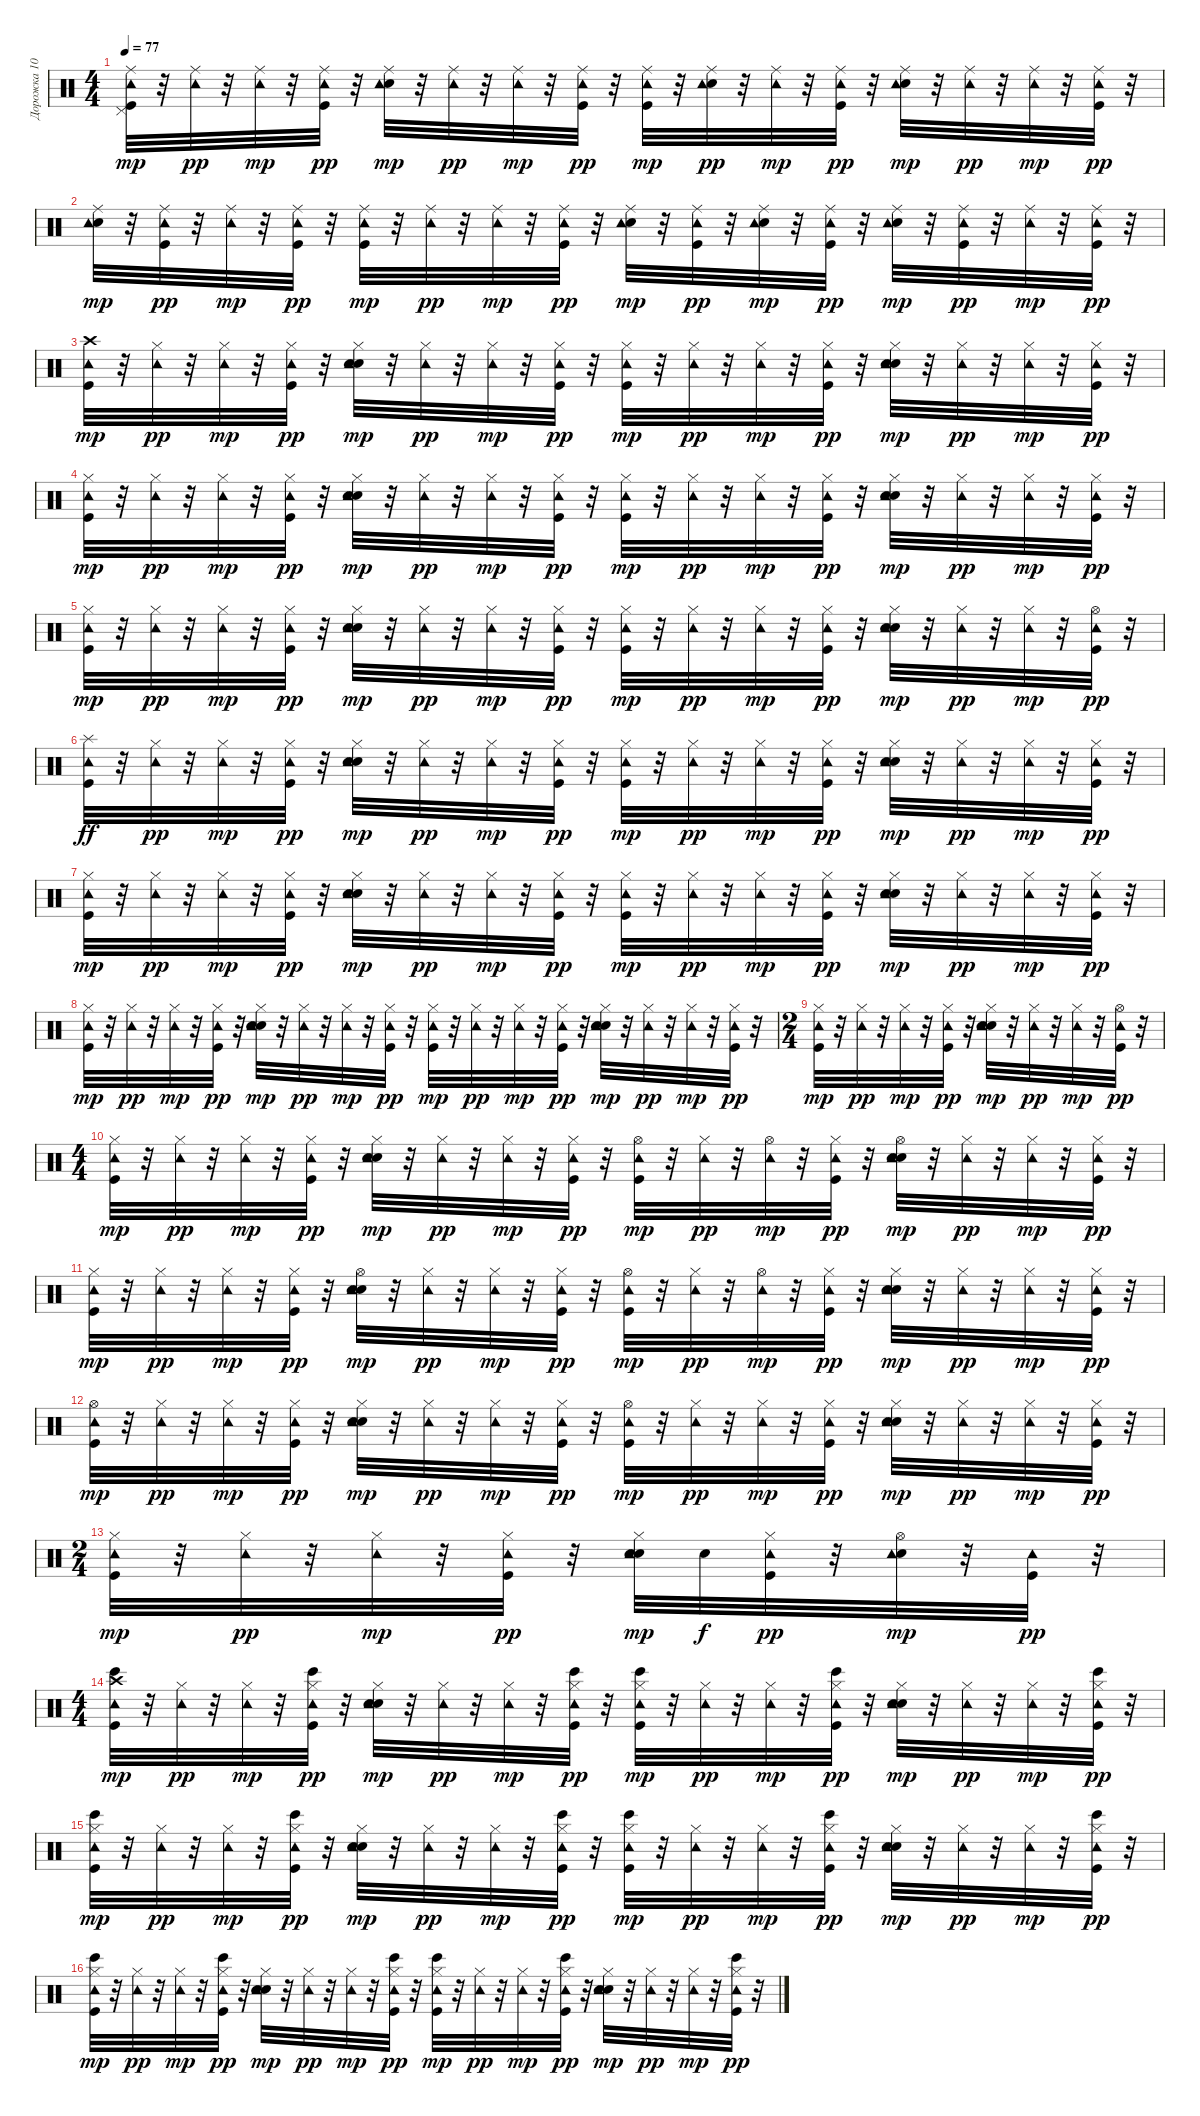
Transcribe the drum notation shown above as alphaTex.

\track ("Дорожка 10" "Дорожка 10") {instrument percussion}
\staff {score}
\articulation defaults
\ts (4 4)
\tempo 77
\clef neutral
\ks c
("Kick (hit)" "Pedal Hi-Hat (hit)" "Ride (middle)" "Tambourine (hit)").32{dy mp} r.32 ("Ride (middle)" "Tambourine (hit)").32{dy pp} r.32 ("Ride (middle)" "Tambourine (hit)").32{dy mp} r.32 ("Kick (hit)" "Ride (middle)" "Tambourine (hit)").32{dy pp} r.32 ("Snare (hit) 2" "Ride (middle)" "Tambourine (hit)").32{dy mp} r.32 ("Ride (middle)" "Tambourine (hit)").32{dy pp} r.32 ("Ride (middle)" "Tambourine (hit)").32{dy mp} r.32 ("Kick (hit)" "Ride (middle)" "Tambourine (hit)").32{dy pp} r.32 ("Kick (hit)" "Ride (middle)" "Tambourine (hit)").32{dy mp} r.32 ("Snare (hit) 2" "Ride (middle)" "Tambourine (hit)").32{dy pp} r.32 ("Ride (middle)" "Tambourine (hit)").32{dy mp} r.32 ("Kick (hit)" "Ride (middle)" "Tambourine (hit)").32{dy pp} r.32 ("Snare (hit) 2" "Ride (middle)" "Tambourine (hit)").32{dy mp} r.32 ("Ride (middle)" "Tambourine (hit)").32{dy pp} r.32 ("Ride (middle)" "Tambourine (hit)").32{dy mp} r.32 ("Kick (hit)" "Ride (middle)" "Tambourine (hit)").32{dy pp} r.32 |
("Snare (hit) 2" "Ride (middle)" "Tambourine (hit)").32{dy mp} r.32 ("Kick (hit)" "Ride (middle)" "Tambourine (hit)").32{dy pp} r.32 ("Ride (middle)" "Tambourine (hit)").32{dy mp} r.32 ("Kick (hit)" "Ride (middle)" "Tambourine (hit)").32{dy pp} r.32 ("Kick (hit)" "Ride (middle)" "Tambourine (hit)").32{dy mp} r.32 ("Ride (middle)" "Tambourine (hit)").32{dy pp} r.32 ("Ride (middle)" "Tambourine (hit)").32{dy mp} r.32 ("Kick (hit)" "Ride (middle)" "Tambourine (hit)").32{dy pp} r.32 ("Snare (hit) 2" "Ride (middle)" "Tambourine (hit)").32{dy mp} r.32 ("Kick (hit)" "Ride (middle)" "Tambourine (hit)").32{dy pp} r.32 ("Snare (hit) 2" "Ride (middle)" "Tambourine (hit)").32{dy mp} r.32 ("Kick (hit)" "Ride (middle)" "Tambourine (hit)").32{dy pp} r.32 ("Snare (hit) 2" "Ride (middle)" "Tambourine (hit)").32{dy mp} r.32 ("Kick (hit)" "Ride (middle)" "Tambourine (hit)").32{dy pp} r.32 ("Ride (middle)" "Tambourine (hit)").32{dy mp} r.32 ("Kick (hit)" "Ride (middle)" "Tambourine (hit)").32{dy pp} r.32 |
("Kick (hit)" "Crash high (hit)" "Tambourine (hit)").32{dy mp} r.32 ("Hi-Hat (closed)" "Tambourine (hit)").32{dy pp} r.32 ("Hi-Hat (closed)" "Tambourine (hit)").32{dy mp} r.32 ("Kick (hit)" "Hi-Hat (closed)" "Tambourine (hit)").32{dy pp} r.32 ("Snare (hit) 2" "Hand Clap (hit)" "Hi-Hat (closed)" "Tambourine (hit)").32{dy mp} r.32 ("Hi-Hat (closed)" "Tambourine (hit)").32{dy pp} r.32 ("Hi-Hat (closed)" "Tambourine (hit)").32{dy mp} r.32 ("Kick (hit)" "Hi-Hat (closed)" "Tambourine (hit)").32{dy pp} r.32 ("Kick (hit)" "Hi-Hat (closed)" "Tambourine (hit)").32{dy mp} r.32 ("Hi-Hat (closed)" "Tambourine (hit)").32{dy pp} r.32 ("Hi-Hat (closed)" "Tambourine (hit)").32{dy mp} r.32 ("Kick (hit)" "Hi-Hat (closed)" "Tambourine (hit)").32{dy pp} r.32 ("Snare (hit) 2" "Hand Clap (hit)" "Hi-Hat (closed)" "Tambourine (hit)").32{dy mp} r.32 ("Hi-Hat (closed)" "Tambourine (hit)").32{dy pp} r.32 ("Hi-Hat (closed)" "Tambourine (hit)").32{dy mp} r.32 ("Kick (hit)" "Hi-Hat (closed)" "Tambourine (hit)").32{dy pp} r.32 |
("Kick (hit)" "Hi-Hat (closed)" "Tambourine (hit)").32{dy mp} r.32 ("Hi-Hat (closed)" "Tambourine (hit)").32{dy pp} r.32 ("Hi-Hat (closed)" "Tambourine (hit)").32{dy mp} r.32 ("Kick (hit)" "Hi-Hat (closed)" "Tambourine (hit)").32{dy pp} r.32 ("Snare (hit) 2" "Hand Clap (hit)" "Hi-Hat (closed)" "Tambourine (hit)").32{dy mp} r.32 ("Hi-Hat (closed)" "Tambourine (hit)").32{dy pp} r.32 ("Hi-Hat (closed)" "Tambourine (hit)").32{dy mp} r.32 ("Kick (hit)" "Hi-Hat (closed)" "Tambourine (hit)").32{dy pp} r.32 ("Kick (hit)" "Hi-Hat (closed)" "Tambourine (hit)").32{dy mp} r.32 ("Hi-Hat (closed)" "Tambourine (hit)").32{dy pp} r.32 ("Hi-Hat (closed)" "Tambourine (hit)").32{dy mp} r.32 ("Kick (hit)" "Hi-Hat (closed)" "Tambourine (hit)").32{dy pp} r.32 ("Snare (hit) 2" "Hand Clap (hit)" "Hi-Hat (closed)" "Tambourine (hit)").32{dy mp} r.32 ("Hi-Hat (closed)" "Tambourine (hit)").32{dy pp} r.32 ("Hi-Hat (closed)" "Tambourine (hit)").32{dy mp} r.32 ("Kick (hit)" "Hi-Hat (closed)" "Tambourine (hit)").32{dy pp} r.32 |
("Kick (hit)" "Hi-Hat (closed)" "Tambourine (hit)").32{dy mp} r.32 ("Hi-Hat (closed)" "Tambourine (hit)").32{dy pp} r.32 ("Hi-Hat (closed)" "Tambourine (hit)").32{dy mp} r.32 ("Kick (hit)" "Hi-Hat (closed)" "Tambourine (hit)").32{dy pp} r.32 ("Snare (hit) 2" "Hand Clap (hit)" "Hi-Hat (closed)" "Tambourine (hit)").32{dy mp} r.32 ("Hi-Hat (closed)" "Tambourine (hit)").32{dy pp} r.32 ("Hi-Hat (closed)" "Tambourine (hit)").32{dy mp} r.32 ("Kick (hit)" "Hi-Hat (closed)" "Tambourine (hit)").32{dy pp} r.32 ("Kick (hit)" "Hi-Hat (closed)" "Tambourine (hit)").32{dy mp} r.32 ("Hi-Hat (closed)" "Tambourine (hit)").32{dy pp} r.32 ("Hi-Hat (closed)" "Tambourine (hit)").32{dy mp} r.32 ("Kick (hit)" "Hi-Hat (closed)" "Tambourine (hit)").32{dy pp} r.32 ("Snare (hit) 2" "Hand Clap (hit)" "Hi-Hat (closed)" "Tambourine (hit)").32{dy mp} r.32 ("Hi-Hat (closed)" "Tambourine (hit)").32{dy pp} r.32 ("Hi-Hat (closed)" "Tambourine (hit)").32{dy mp} r.32 ("Kick (hit)" "Hi-Hat (open)" "Tambourine (hit)").32{dy pp} r.32 |
("Kick (hit)" "Tambourine (hit)" "Splash (hit)").32{dy ff} r.32 ("Hi-Hat (closed)" "Tambourine (hit)").32{dy pp} r.32 ("Hi-Hat (closed)" "Tambourine (hit)").32{dy mp} r.32 ("Kick (hit)" "Hi-Hat (closed)" "Tambourine (hit)").32{dy pp} r.32 ("Snare (hit) 2" "Hand Clap (hit)" "Hi-Hat (closed)" "Tambourine (hit)").32{dy mp} r.32 ("Hi-Hat (closed)" "Tambourine (hit)").32{dy pp} r.32 ("Hi-Hat (closed)" "Tambourine (hit)").32{dy mp} r.32 ("Kick (hit)" "Hi-Hat (closed)" "Tambourine (hit)").32{dy pp} r.32 ("Kick (hit)" "Hi-Hat (closed)" "Tambourine (hit)").32{dy mp} r.32 ("Hi-Hat (closed)" "Tambourine (hit)").32{dy pp} r.32 ("Hi-Hat (closed)" "Tambourine (hit)").32{dy mp} r.32 ("Kick (hit)" "Hi-Hat (closed)" "Tambourine (hit)").32{dy pp} r.32 ("Snare (hit) 2" "Hand Clap (hit)" "Hi-Hat (closed)" "Tambourine (hit)").32{dy mp} r.32 ("Hi-Hat (closed)" "Tambourine (hit)").32{dy pp} r.32 ("Hi-Hat (closed)" "Tambourine (hit)").32{dy mp} r.32 ("Kick (hit)" "Hi-Hat (closed)" "Tambourine (hit)").32{dy pp} r.32 |
("Kick (hit)" "Hi-Hat (closed)" "Tambourine (hit)").32{dy mp} r.32 ("Hi-Hat (closed)" "Tambourine (hit)").32{dy pp} r.32 ("Hi-Hat (closed)" "Tambourine (hit)").32{dy mp} r.32 ("Kick (hit)" "Hi-Hat (closed)" "Tambourine (hit)").32{dy pp} r.32 ("Snare (hit) 2" "Hand Clap (hit)" "Hi-Hat (closed)" "Tambourine (hit)").32{dy mp} r.32 ("Hi-Hat (closed)" "Tambourine (hit)").32{dy pp} r.32 ("Hi-Hat (closed)" "Tambourine (hit)").32{dy mp} r.32 ("Kick (hit)" "Hi-Hat (closed)" "Tambourine (hit)").32{dy pp} r.32 ("Kick (hit)" "Hi-Hat (closed)" "Tambourine (hit)").32{dy mp} r.32 ("Hi-Hat (closed)" "Tambourine (hit)").32{dy pp} r.32 ("Hi-Hat (closed)" "Tambourine (hit)").32{dy mp} r.32 ("Kick (hit)" "Hi-Hat (closed)" "Tambourine (hit)").32{dy pp} r.32 ("Snare (hit) 2" "Hand Clap (hit)" "Hi-Hat (closed)" "Tambourine (hit)").32{dy mp} r.32 ("Hi-Hat (closed)" "Tambourine (hit)").32{dy pp} r.32 ("Hi-Hat (closed)" "Tambourine (hit)").32{dy mp} r.32 ("Kick (hit)" "Hi-Hat (closed)" "Tambourine (hit)").32{dy pp} r.32 |
("Kick (hit)" "Hi-Hat (closed)" "Tambourine (hit)").32{dy mp} r.32 ("Hi-Hat (closed)" "Tambourine (hit)").32{dy pp} r.32 ("Hi-Hat (closed)" "Tambourine (hit)").32{dy mp} r.32 ("Kick (hit)" "Hi-Hat (closed)" "Tambourine (hit)").32{dy pp} r.32 ("Snare (hit) 2" "Hand Clap (hit)" "Hi-Hat (closed)" "Tambourine (hit)").32{dy mp} r.32 ("Hi-Hat (closed)" "Tambourine (hit)").32{dy pp} r.32 ("Hi-Hat (closed)" "Tambourine (hit)").32{dy mp} r.32 ("Kick (hit)" "Hi-Hat (closed)" "Tambourine (hit)").32{dy pp} r.32 ("Kick (hit)" "Hi-Hat (closed)" "Tambourine (hit)").32{dy mp} r.32 ("Hi-Hat (closed)" "Tambourine (hit)").32{dy pp} r.32 ("Hi-Hat (closed)" "Tambourine (hit)").32{dy mp} r.32 ("Kick (hit)" "Hi-Hat (closed)" "Tambourine (hit)").32{dy pp} r.32 ("Snare (hit) 2" "Hand Clap (hit)" "Hi-Hat (closed)" "Tambourine (hit)").32{dy mp} r.32 ("Hi-Hat (closed)" "Tambourine (hit)").32{dy pp} r.32 ("Hi-Hat (closed)" "Tambourine (hit)").32{dy mp} r.32 ("Kick (hit)" "Hi-Hat (closed)" "Tambourine (hit)").32{dy pp} r.32 |
\ts (2 4)
("Kick (hit)" "Hi-Hat (closed)" "Tambourine (hit)").32{dy mp} r.32 ("Hi-Hat (closed)" "Tambourine (hit)").32{dy pp} r.32 ("Hi-Hat (closed)" "Tambourine (hit)").32{dy mp} r.32 ("Kick (hit)" "Hi-Hat (closed)" "Tambourine (hit)").32{dy pp} r.32 ("Snare (hit) 2" "Hand Clap (hit)" "Hi-Hat (closed)" "Tambourine (hit)").32{dy mp} r.32 ("Hi-Hat (closed)" "Tambourine (hit)").32{dy pp} r.32 ("Hi-Hat (closed)" "Tambourine (hit)").32{dy mp} r.32 ("Kick (hit)" "Hi-Hat (open)" "Tambourine (hit)").32{dy pp} r.32 |
\ts (4 4)
("Kick (hit)" "Hi-Hat (closed)" "Tambourine (hit)").32{dy mp} r.32 ("Hi-Hat (closed)" "Tambourine (hit)").32{dy pp} r.32 ("Hi-Hat (closed)" "Tambourine (hit)").32{dy mp} r.32 ("Kick (hit)" "Hi-Hat (closed)" "Tambourine (hit)").32{dy pp} r.32 ("Snare (hit) 2" "Hand Clap (hit)" "Hi-Hat (closed)" "Tambourine (hit)").32{dy mp} r.32 ("Hi-Hat (closed)" "Tambourine (hit)").32{dy pp} r.32 ("Hi-Hat (closed)" "Tambourine (hit)").32{dy mp} r.32 ("Kick (hit)" "Hi-Hat (closed)" "Tambourine (hit)").32{dy pp} r.32 ("Kick (hit)" "Hi-Hat (open)" "Tambourine (hit)").32{dy mp} r.32 ("Hi-Hat (closed)" "Tambourine (hit)").32{dy pp} r.32 ("Hi-Hat (open)" "Tambourine (hit)").32{dy mp} r.32 ("Kick (hit)" "Hi-Hat (closed)" "Tambourine (hit)").32{dy pp} r.32 ("Snare (hit) 2" "Hand Clap (hit)" "Hi-Hat (open)" "Tambourine (hit)").32{dy mp} r.32 ("Hi-Hat (closed)" "Tambourine (hit)").32{dy pp} r.32 ("Hi-Hat (closed)" "Tambourine (hit)").32{dy mp} r.32 ("Kick (hit)" "Hi-Hat (closed)" "Tambourine (hit)").32{dy pp} r.32 |
("Kick (hit)" "Hi-Hat (closed)" "Tambourine (hit)").32{dy mp} r.32 ("Hi-Hat (closed)" "Tambourine (hit)").32{dy pp} r.32 ("Hi-Hat (closed)" "Tambourine (hit)").32{dy mp} r.32 ("Kick (hit)" "Hi-Hat (closed)" "Tambourine (hit)").32{dy pp} r.32 ("Snare (hit) 2" "Hand Clap (hit)" "Hi-Hat (open)" "Tambourine (hit)").32{dy mp} r.32 ("Hi-Hat (closed)" "Tambourine (hit)").32{dy pp} r.32 ("Hi-Hat (closed)" "Tambourine (hit)").32{dy mp} r.32 ("Kick (hit)" "Hi-Hat (closed)" "Tambourine (hit)").32{dy pp} r.32 ("Kick (hit)" "Hi-Hat (open)" "Tambourine (hit)").32{dy mp} r.32 ("Hi-Hat (closed)" "Tambourine (hit)").32{dy pp} r.32 ("Hi-Hat (open)" "Tambourine (hit)").32{dy mp} r.32 ("Kick (hit)" "Hi-Hat (closed)" "Tambourine (hit)").32{dy pp} r.32 ("Snare (hit) 2" "Hand Clap (hit)" "Hi-Hat (closed)" "Tambourine (hit)").32{dy mp} r.32 ("Hi-Hat (closed)" "Tambourine (hit)").32{dy pp} r.32 ("Hi-Hat (closed)" "Tambourine (hit)").32{dy mp} r.32 ("Kick (hit)" "Hi-Hat (closed)" "Tambourine (hit)").32{dy pp} r.32 |
("Kick (hit)" "Hi-Hat (open)" "Tambourine (hit)").32{dy mp} r.32 ("Hi-Hat (closed)" "Tambourine (hit)").32{dy pp} r.32 ("Hi-Hat (closed)" "Tambourine (hit)").32{dy mp} r.32 ("Kick (hit)" "Hi-Hat (closed)" "Tambourine (hit)").32{dy pp} r.32 ("Snare (hit) 2" "Hand Clap (hit)" "Hi-Hat (closed)" "Tambourine (hit)").32{dy mp} r.32 ("Hi-Hat (closed)" "Tambourine (hit)").32{dy pp} r.32 ("Hi-Hat (closed)" "Tambourine (hit)").32{dy mp} r.32 ("Kick (hit)" "Hi-Hat (closed)" "Tambourine (hit)").32{dy pp} r.32 ("Kick (hit)" "Hi-Hat (open)" "Tambourine (hit)").32{dy mp} r.32 ("Hi-Hat (closed)" "Tambourine (hit)").32{dy pp} r.32 ("Hi-Hat (closed)" "Tambourine (hit)").32{dy mp} r.32 ("Kick (hit)" "Hi-Hat (closed)" "Tambourine (hit)").32{dy pp} r.32 ("Snare (hit) 2" "Hand Clap (hit)" "Hi-Hat (closed)" "Tambourine (hit)").32{dy mp} r.32 ("Hi-Hat (closed)" "Tambourine (hit)").32{dy pp} r.32 ("Hi-Hat (closed)" "Tambourine (hit)").32{dy mp} r.32 ("Kick (hit)" "Hi-Hat (closed)" "Tambourine (hit)").32{dy pp} r.32 |
\ts (2 4)
("Kick (hit)" "Hi-Hat (closed)" "Tambourine (hit)").32{dy mp} r.32 ("Hi-Hat (closed)" "Tambourine (hit)").32{dy pp} r.32 ("Hi-Hat (closed)" "Tambourine (hit)").32{dy mp} r.32 ("Kick (hit)" "Hi-Hat (closed)" "Tambourine (hit)").32{dy pp} r.32 ("Snare (hit) 2" "Hand Clap (hit)" "Hi-Hat (closed)" "Tambourine (hit)").32{dy mp} "Snare (hit) 2".32{dy f} ("Kick (hit)" "Hi-Hat (closed)" "Tambourine (hit)").32{dy pp} r.32 ("Snare (hit) 2" "Hi-Hat (open)" "Tambourine (hit)").32{dy mp} r.32 ("Kick (hit)" "Tambourine (hit)").32{dy pp} r.32 |
\ts (4 4)
("Bongo High (hit)" "Kick (hit)" "Crash high (hit)" "Tambourine (hit)").32{dy mp} r.32 ("Hi-Hat (closed)" "Tambourine (hit)").32{dy pp} r.32 ("Hi-Hat (closed)" "Tambourine (hit)").32{dy mp} r.32 ("Bongo High (hit)" "Kick (hit)" "Hi-Hat (closed)" "Tambourine (hit)").32{dy pp} r.32 ("Snare (hit) 2" "Hand Clap (hit)" "Hi-Hat (closed)" "Tambourine (hit)").32{dy mp} r.32 ("Hi-Hat (closed)" "Tambourine (hit)").32{dy pp} r.32 ("Hi-Hat (closed)" "Tambourine (hit)").32{dy mp} r.32 ("Bongo High (hit)" "Kick (hit)" "Hi-Hat (closed)" "Tambourine (hit)").32{dy pp} r.32 ("Bongo High (hit)" "Kick (hit)" "Hi-Hat (closed)" "Tambourine (hit)").32{dy mp} r.32 ("Hi-Hat (closed)" "Tambourine (hit)").32{dy pp} r.32 ("Hi-Hat (closed)" "Tambourine (hit)").32{dy mp} r.32 ("Bongo High (hit)" "Kick (hit)" "Hi-Hat (closed)" "Tambourine (hit)").32{dy pp} r.32 ("Snare (hit) 2" "Hand Clap (hit)" "Hi-Hat (closed)" "Tambourine (hit)").32{dy mp} r.32 ("Hi-Hat (closed)" "Tambourine (hit)").32{dy pp} r.32 ("Hi-Hat (closed)" "Tambourine (hit)").32{dy mp} r.32 ("Bongo High (hit)" "Kick (hit)" "Hi-Hat (closed)" "Tambourine (hit)").32{dy pp} r.32 |
("Bongo High (hit)" "Kick (hit)" "Hi-Hat (closed)" "Tambourine (hit)").32{dy mp} r.32 ("Hi-Hat (closed)" "Tambourine (hit)").32{dy pp} r.32 ("Hi-Hat (closed)" "Tambourine (hit)").32{dy mp} r.32 ("Bongo High (hit)" "Kick (hit)" "Hi-Hat (closed)" "Tambourine (hit)").32{dy pp} r.32 ("Snare (hit) 2" "Hand Clap (hit)" "Hi-Hat (closed)" "Tambourine (hit)").32{dy mp} r.32 ("Hi-Hat (closed)" "Tambourine (hit)").32{dy pp} r.32 ("Hi-Hat (closed)" "Tambourine (hit)").32{dy mp} r.32 ("Bongo High (hit)" "Kick (hit)" "Hi-Hat (closed)" "Tambourine (hit)").32{dy pp} r.32 ("Bongo High (hit)" "Kick (hit)" "Hi-Hat (closed)" "Tambourine (hit)").32{dy mp} r.32 ("Hi-Hat (closed)" "Tambourine (hit)").32{dy pp} r.32 ("Hi-Hat (closed)" "Tambourine (hit)").32{dy mp} r.32 ("Bongo High (hit)" "Kick (hit)" "Hi-Hat (closed)" "Tambourine (hit)").32{dy pp} r.32 ("Snare (hit) 2" "Hand Clap (hit)" "Hi-Hat (closed)" "Tambourine (hit)").32{dy mp} r.32 ("Hi-Hat (closed)" "Tambourine (hit)").32{dy pp} r.32 ("Hi-Hat (closed)" "Tambourine (hit)").32{dy mp} r.32 ("Bongo High (hit)" "Kick (hit)" "Hi-Hat (closed)" "Tambourine (hit)").32{dy pp} r.32 |
("Bongo High (hit)" "Kick (hit)" "Hi-Hat (closed)" "Tambourine (hit)").32{dy mp} r.32 ("Hi-Hat (closed)" "Tambourine (hit)").32{dy pp} r.32 ("Hi-Hat (closed)" "Tambourine (hit)").32{dy mp} r.32 ("Bongo High (hit)" "Kick (hit)" "Hi-Hat (closed)" "Tambourine (hit)").32{dy pp} r.32 ("Snare (hit) 2" "Hand Clap (hit)" "Hi-Hat (closed)" "Tambourine (hit)").32{dy mp} r.32 ("Hi-Hat (closed)" "Tambourine (hit)").32{dy pp} r.32 ("Hi-Hat (closed)" "Tambourine (hit)").32{dy mp} r.32 ("Bongo High (hit)" "Kick (hit)" "Hi-Hat (closed)" "Tambourine (hit)").32{dy pp} r.32 ("Bongo High (hit)" "Kick (hit)" "Hi-Hat (closed)" "Tambourine (hit)").32{dy mp} r.32 ("Hi-Hat (closed)" "Tambourine (hit)").32{dy pp} r.32 ("Hi-Hat (closed)" "Tambourine (hit)").32{dy mp} r.32 ("Bongo High (hit)" "Kick (hit)" "Hi-Hat (closed)" "Tambourine (hit)").32{dy pp} r.32 ("Snare (hit) 2" "Hand Clap (hit)" "Hi-Hat (closed)" "Tambourine (hit)").32{dy mp} r.32 ("Hi-Hat (closed)" "Tambourine (hit)").32{dy pp} r.32 ("Hi-Hat (closed)" "Tambourine (hit)").32{dy mp} r.32 ("Bongo High (hit)" "Kick (hit)" "Hi-Hat (closed)" "Tambourine (hit)").32{dy pp} r.32
